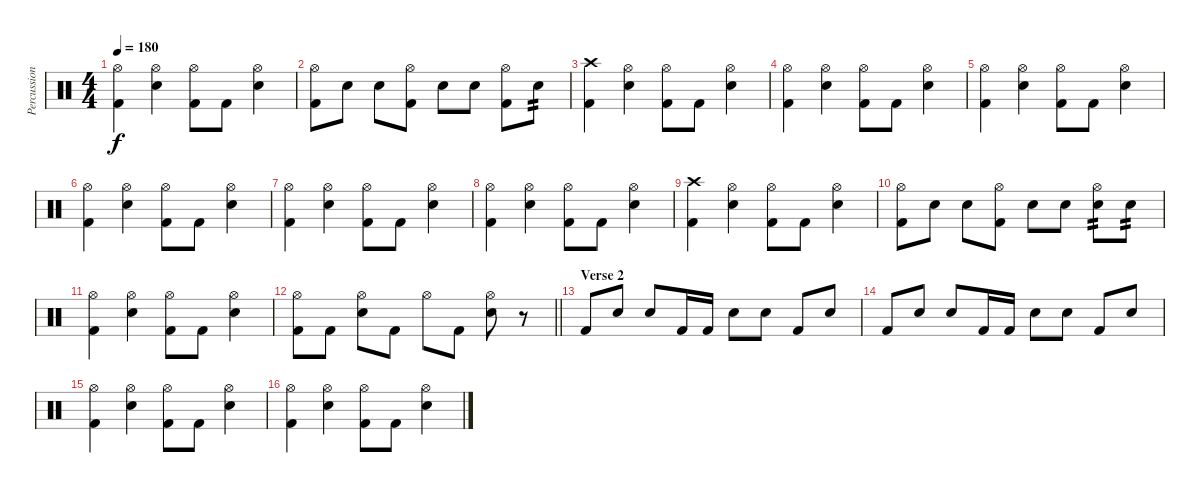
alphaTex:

\track ("Percussion" "Percussion") {instrument percussion}
\staff {score}
\articulation defaults
\ts (4 4)
\tempo 180
\clef neutral
\ks c
("Hi-Hat (open)" "Kick (hit) 2").4{dy f} ("Hi-Hat (open)" "Snare (hit) 2").4 ("Hi-Hat (open)" "Kick (hit) 2").8 "Kick (hit) 2".8 ("Hi-Hat (open)" "Snare (hit) 2").4 |
("Hi-Hat (open)" "Kick (hit) 2").8 "Snare (hit) 2".8 "Snare (hit) 2".8 ("Hi-Hat (open)" "Kick (hit) 2").8 "Snare (hit) 2".8 "Snare (hit) 2".8 ("Hi-Hat (open)" "Kick (hit) 2").8 "Snare (hit) 2".8{tp 2} |
("Crash high (hit)" "Kick (hit) 2").4 ("Hi-Hat (open)" "Snare (hit) 2").4 ("Hi-Hat (open)" "Kick (hit) 2").8 "Kick (hit) 2".8 ("Hi-Hat (open)" "Snare (hit) 2").4 |
("Hi-Hat (open)" "Kick (hit) 2").4 ("Hi-Hat (open)" "Snare (hit) 2").4 ("Hi-Hat (open)" "Kick (hit) 2").8 "Kick (hit) 2".8 ("Hi-Hat (open)" "Snare (hit) 2").4 |
("Hi-Hat (open)" "Kick (hit) 2").4 ("Hi-Hat (open)" "Snare (hit) 2").4 ("Hi-Hat (open)" "Kick (hit) 2").8 "Kick (hit) 2".8 ("Hi-Hat (open)" "Snare (hit) 2").4 |
("Hi-Hat (open)" "Kick (hit) 2").4 ("Hi-Hat (open)" "Snare (hit) 2").4 ("Hi-Hat (open)" "Kick (hit) 2").8 "Kick (hit) 2".8 ("Hi-Hat (open)" "Snare (hit) 2").4 |
("Hi-Hat (open)" "Kick (hit) 2").4 ("Hi-Hat (open)" "Snare (hit) 2").4 ("Hi-Hat (open)" "Kick (hit) 2").8 "Kick (hit) 2".8 ("Hi-Hat (open)" "Snare (hit) 2").4 |
("Hi-Hat (open)" "Kick (hit) 2").4 ("Hi-Hat (open)" "Snare (hit) 2").4 ("Hi-Hat (open)" "Kick (hit) 2").8 "Kick (hit) 2".8 ("Hi-Hat (open)" "Snare (hit) 2").4 |
("Crash high (hit)" "Kick (hit) 2").4 ("Hi-Hat (open)" "Snare (hit) 2").4 ("Hi-Hat (open)" "Kick (hit) 2").8 "Kick (hit) 2".8 ("Hi-Hat (open)" "Snare (hit) 2").4 |
("Hi-Hat (open)" "Kick (hit) 2").8 "Snare (hit) 2".8 "Snare (hit) 2".8 ("Hi-Hat (open)" "Kick (hit) 2").8 "Snare (hit) 2".8 "Snare (hit) 2".8 ("Hi-Hat (open)" "Snare (hit) 2").8{tp 2} "Snare (hit) 2".8{tp 2} |
("Hi-Hat (open)" "Kick (hit) 2").4 ("Hi-Hat (open)" "Snare (hit) 2").4 ("Hi-Hat (open)" "Kick (hit) 2").8 "Kick (hit) 2".8 ("Hi-Hat (open)" "Snare (hit) 2").4 |
\barLineRight lightlight
("Hi-Hat (open)" "Kick (hit) 2").8 "Kick (hit) 2".8 ("Hi-Hat (open)" "Snare (hit) 2").8 "Kick (hit) 2".8 "Hi-Hat (open)".8 "Kick (hit) 2".8 ("Hi-Hat (open)" "Snare (hit) 2").8 r.8 |
\section ("" "Verse 2")
"Kick (hit) 2".8 "Snare (hit) 2".8 "Snare (hit) 2".8 "Kick (hit) 2".16 "Kick (hit) 2".16 "Snare (hit) 2".8 "Snare (hit) 2".8 "Kick (hit) 2".8 "Snare (hit) 2".8 |
"Kick (hit) 2".8 "Snare (hit) 2".8 "Snare (hit) 2".8 "Kick (hit) 2".16 "Kick (hit) 2".16 "Snare (hit) 2".8 "Snare (hit) 2".8 "Kick (hit) 2".8 "Snare (hit) 2".8 |
("Hi-Hat (open)" "Kick (hit) 2").4 ("Hi-Hat (open)" "Snare (hit) 2").4 ("Hi-Hat (open)" "Kick (hit) 2").8 "Kick (hit) 2".8 ("Hi-Hat (open)" "Snare (hit) 2").4 |
("Hi-Hat (open)" "Kick (hit) 2").4 ("Hi-Hat (open)" "Snare (hit) 2").4 ("Hi-Hat (open)" "Kick (hit) 2").8 "Kick (hit) 2".8 ("Hi-Hat (open)" "Snare (hit) 2").4
